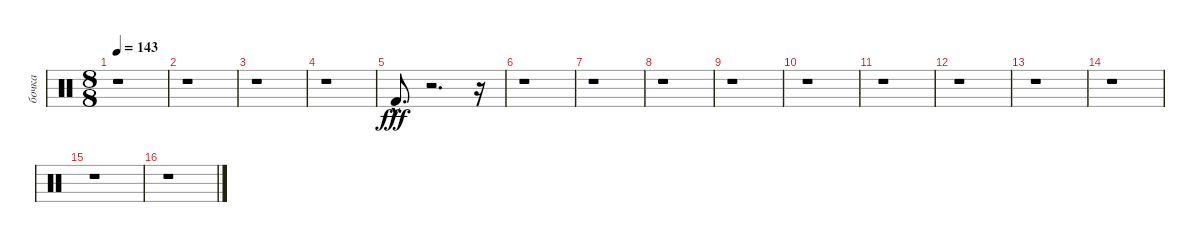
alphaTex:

\track ("бочка" "бочка") {instrument percussion}
\staff {score}
\articulation defaults
\ts (8 8)
\tempo 143
\clef neutral
\ks c
r.1{dy fff} |
r.1 |
r.1 |
r.1 |
"Kick (hit) 2"{hac}.8{d} r.2{d} r.16 |
r.1 |
r.1 |
r.1 |
r.1 |
r.1 |
r.1 |
r.1 |
r.1 |
r.1 |
r.1 |
r.1
